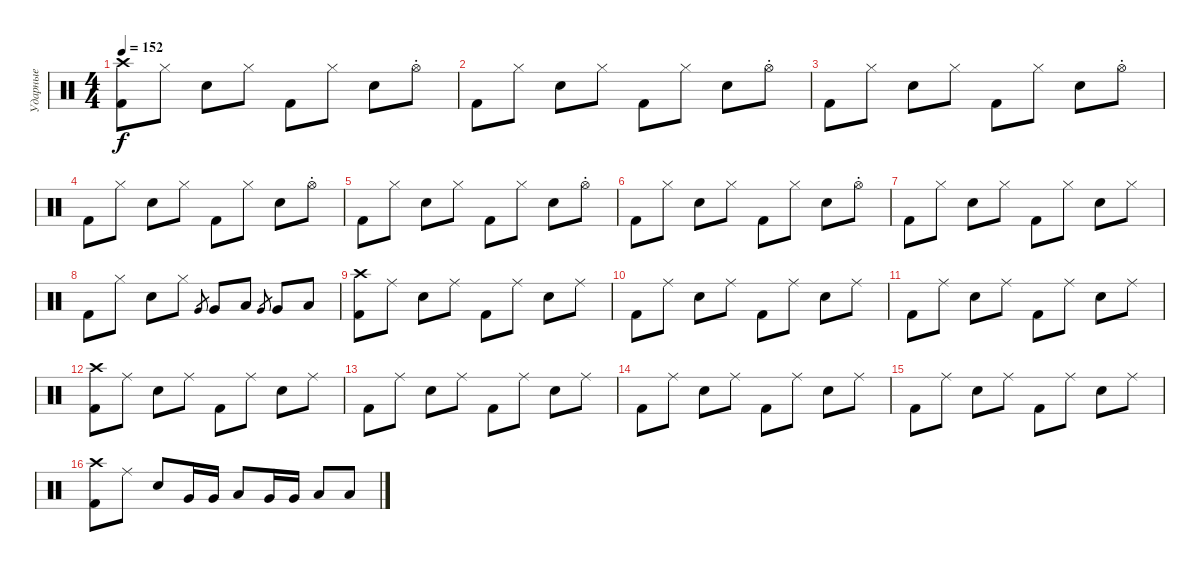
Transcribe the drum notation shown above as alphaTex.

\track ("Ударные" "Ударные") {instrument percussion}
\staff {score}
\articulation defaults
\ts (4 4)
\tempo 152
\clef neutral
\ks c
("Crash high (hit)" "Kick (hit) 2").8{dy f} "Hi-Hat (closed)".8 "Electric Snare (hit)".8 "Hi-Hat (closed)".8 "Kick (hit) 2".8 "Hi-Hat (closed)".8 "Electric Snare (hit)".8 "Hi-Hat (open)"{st}.8 |
"Kick (hit) 2".8 "Hi-Hat (closed)".8 "Electric Snare (hit)".8 "Hi-Hat (closed)".8 "Kick (hit) 2".8 "Hi-Hat (closed)".8 "Electric Snare (hit)".8 "Hi-Hat (open)"{st}.8 |
"Kick (hit) 2".8 "Hi-Hat (closed)".8 "Electric Snare (hit)".8 "Hi-Hat (closed)".8 "Kick (hit) 2".8 "Hi-Hat (closed)".8 "Electric Snare (hit)".8 "Hi-Hat (open)"{st}.8 |
"Kick (hit) 2".8 "Hi-Hat (closed)".8 "Electric Snare (hit)".8 "Hi-Hat (closed)".8 "Kick (hit) 2".8 "Hi-Hat (closed)".8 "Electric Snare (hit)".8 "Hi-Hat (open)"{st}.8 |
"Kick (hit) 2".8 "Hi-Hat (closed)".8 "Electric Snare (hit)".8 "Hi-Hat (closed)".8 "Kick (hit) 2".8 "Hi-Hat (closed)".8 "Electric Snare (hit)".8 "Hi-Hat (open)"{st}.8 |
"Kick (hit) 2".8 "Hi-Hat (closed)".8 "Electric Snare (hit)".8 "Hi-Hat (closed)".8 "Kick (hit) 2".8 "Hi-Hat (closed)".8 "Electric Snare (hit)".8 "Hi-Hat (open)"{st}.8 |
"Kick (hit) 2".8 "Hi-Hat (closed)".8 "Electric Snare (hit)".8 "Hi-Hat (closed)".8 "Kick (hit) 2".8 "Hi-Hat (closed)".8 "Electric Snare (hit)".8 "Hi-Hat (closed)".8 |
"Kick (hit) 2".8 "Hi-Hat (closed)".8 "Electric Snare (hit)".8 "Hi-Hat (closed)".8 "Very Low Tom (hit)".8{gr} "Very Low Tom (hit)".8 "Low Tom (hit)".8 "Very Low Tom (hit)".8{gr} "Very Low Tom (hit)".8 "Low Tom (hit)".8 |
("Crash high (hit)" "Kick (hit) 2").8 "Ride (middle)".8 "Electric Snare (hit)".8 "Ride (middle)".8 "Kick (hit) 2".8 "Ride (middle)".8 "Electric Snare (hit)".8 "Ride (middle)".8 |
"Kick (hit) 2".8 "Ride (middle)".8 "Electric Snare (hit)".8 "Ride (middle)".8 "Kick (hit) 2".8 "Ride (middle)".8 "Electric Snare (hit)".8 "Ride (middle)".8 |
"Kick (hit) 2".8 "Ride (middle)".8 "Electric Snare (hit)".8 "Ride (middle)".8 "Kick (hit) 2".8 "Ride (middle)".8 "Electric Snare (hit)".8 "Ride (middle)".8 |
("Crash high (hit)" "Kick (hit) 2").8 "Ride (middle)".8 "Electric Snare (hit)".8 "Ride (middle)".8 "Kick (hit) 2".8 "Ride (middle)".8 "Electric Snare (hit)".8 "Ride (middle)".8 |
"Kick (hit) 2".8 "Ride (middle)".8 "Electric Snare (hit)".8 "Ride (middle)".8 "Kick (hit) 2".8 "Ride (middle)".8 "Electric Snare (hit)".8 "Ride (middle)".8 |
"Kick (hit) 2".8 "Ride (middle)".8 "Electric Snare (hit)".8 "Ride (middle)".8 "Kick (hit) 2".8 "Ride (middle)".8 "Electric Snare (hit)".8 "Ride (middle)".8 |
"Kick (hit) 2".8 "Ride (middle)".8 "Electric Snare (hit)".8 "Ride (middle)".8 "Kick (hit) 2".8 "Ride (middle)".8 "Electric Snare (hit)".8 "Ride (middle)".8 |
("Crash high (hit)" "Kick (hit) 2").8 "Ride (middle)".8 "Electric Snare (hit)".8 "Very Low Tom (hit)".16 "Very Low Tom (hit)".16 "Low Tom (hit)".8 "Very Low Tom (hit)".16 "Very Low Tom (hit)".16 "Low Floor Tom (hit)".8 "Low Floor Tom (hit)".8
